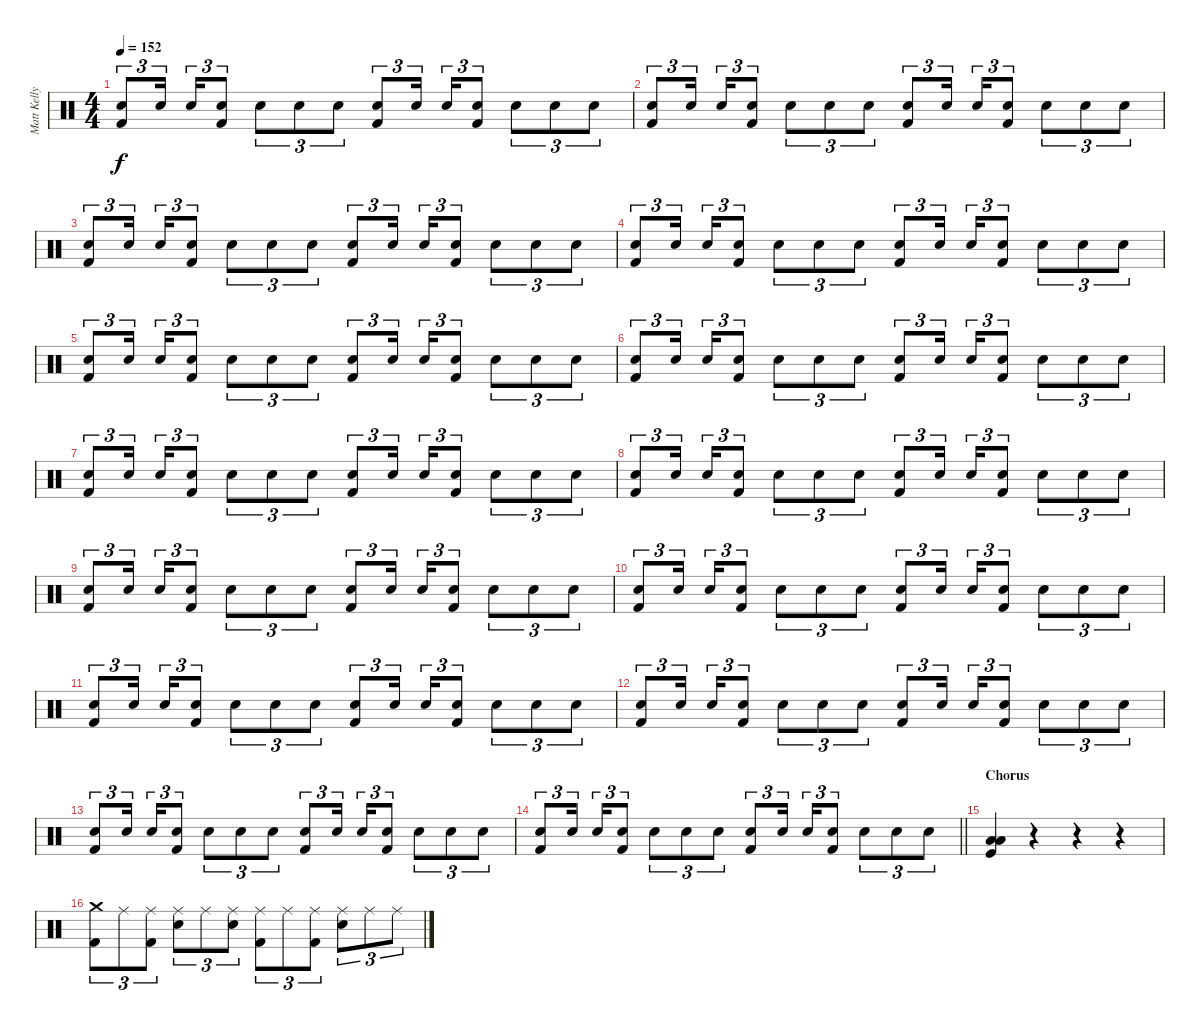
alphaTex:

\track ("Matt Kelly (Drums)" "Matt Kelly") {instrument percussion}
\staff {score}
\articulation defaults
\ts (4 4)
\tempo 152
\clef neutral
\ks c
("Electric Snare (hit)" "Kick (hit) 2").8{tu (3 2) dy f} "Electric Snare (hit)".16{tu (3 2) beam splitsecondary} "Electric Snare (hit)".16{tu (3 2)} ("Electric Snare (hit)" "Kick (hit) 2").8{tu (3 2)} "Electric Snare (hit)".8{tu (3 2)} "Electric Snare (hit)".8{tu (3 2)} "Electric Snare (hit)".8{tu (3 2)} ("Electric Snare (hit)" "Kick (hit) 2").8{tu (3 2)} "Electric Snare (hit)".16{tu (3 2) beam splitsecondary} "Electric Snare (hit)".16{tu (3 2)} ("Electric Snare (hit)" "Kick (hit) 2").8{tu (3 2)} "Electric Snare (hit)".8{tu (3 2)} "Electric Snare (hit)".8{tu (3 2)} "Electric Snare (hit)".8{tu (3 2)} |
("Electric Snare (hit)" "Kick (hit) 2").8{tu (3 2)} "Electric Snare (hit)".16{tu (3 2) beam splitsecondary} "Electric Snare (hit)".16{tu (3 2)} ("Electric Snare (hit)" "Kick (hit) 2").8{tu (3 2)} "Electric Snare (hit)".8{tu (3 2)} "Electric Snare (hit)".8{tu (3 2)} "Electric Snare (hit)".8{tu (3 2)} ("Electric Snare (hit)" "Kick (hit) 2").8{tu (3 2)} "Electric Snare (hit)".16{tu (3 2) beam splitsecondary} "Electric Snare (hit)".16{tu (3 2)} ("Electric Snare (hit)" "Kick (hit) 2").8{tu (3 2)} "Electric Snare (hit)".8{tu (3 2)} "Electric Snare (hit)".8{tu (3 2)} "Electric Snare (hit)".8{tu (3 2)} |
("Electric Snare (hit)" "Kick (hit) 2").8{tu (3 2)} "Electric Snare (hit)".16{tu (3 2) beam splitsecondary} "Electric Snare (hit)".16{tu (3 2)} ("Electric Snare (hit)" "Kick (hit) 2").8{tu (3 2)} "Electric Snare (hit)".8{tu (3 2)} "Electric Snare (hit)".8{tu (3 2)} "Electric Snare (hit)".8{tu (3 2)} ("Electric Snare (hit)" "Kick (hit) 2").8{tu (3 2)} "Electric Snare (hit)".16{tu (3 2) beam splitsecondary} "Electric Snare (hit)".16{tu (3 2)} ("Electric Snare (hit)" "Kick (hit) 2").8{tu (3 2)} "Electric Snare (hit)".8{tu (3 2)} "Electric Snare (hit)".8{tu (3 2)} "Electric Snare (hit)".8{tu (3 2)} |
("Electric Snare (hit)" "Kick (hit) 2").8{tu (3 2)} "Electric Snare (hit)".16{tu (3 2) beam splitsecondary} "Electric Snare (hit)".16{tu (3 2)} ("Electric Snare (hit)" "Kick (hit) 2").8{tu (3 2)} "Electric Snare (hit)".8{tu (3 2)} "Electric Snare (hit)".8{tu (3 2)} "Electric Snare (hit)".8{tu (3 2)} ("Electric Snare (hit)" "Kick (hit) 2").8{tu (3 2)} "Electric Snare (hit)".16{tu (3 2) beam splitsecondary} "Electric Snare (hit)".16{tu (3 2)} ("Electric Snare (hit)" "Kick (hit) 2").8{tu (3 2)} "Electric Snare (hit)".8{tu (3 2)} "Electric Snare (hit)".8{tu (3 2)} "Electric Snare (hit)".8{tu (3 2)} |
("Electric Snare (hit)" "Kick (hit) 2").8{tu (3 2)} "Electric Snare (hit)".16{tu (3 2) beam splitsecondary} "Electric Snare (hit)".16{tu (3 2)} ("Electric Snare (hit)" "Kick (hit) 2").8{tu (3 2)} "Electric Snare (hit)".8{tu (3 2)} "Electric Snare (hit)".8{tu (3 2)} "Electric Snare (hit)".8{tu (3 2)} ("Electric Snare (hit)" "Kick (hit) 2").8{tu (3 2)} "Electric Snare (hit)".16{tu (3 2) beam splitsecondary} "Electric Snare (hit)".16{tu (3 2)} ("Electric Snare (hit)" "Kick (hit) 2").8{tu (3 2)} "Electric Snare (hit)".8{tu (3 2)} "Electric Snare (hit)".8{tu (3 2)} "Electric Snare (hit)".8{tu (3 2)} |
("Electric Snare (hit)" "Kick (hit) 2").8{tu (3 2)} "Electric Snare (hit)".16{tu (3 2) beam splitsecondary} "Electric Snare (hit)".16{tu (3 2)} ("Electric Snare (hit)" "Kick (hit) 2").8{tu (3 2)} "Electric Snare (hit)".8{tu (3 2)} "Electric Snare (hit)".8{tu (3 2)} "Electric Snare (hit)".8{tu (3 2)} ("Electric Snare (hit)" "Kick (hit) 2").8{tu (3 2)} "Electric Snare (hit)".16{tu (3 2) beam splitsecondary} "Electric Snare (hit)".16{tu (3 2)} ("Electric Snare (hit)" "Kick (hit) 2").8{tu (3 2)} "Electric Snare (hit)".8{tu (3 2)} "Electric Snare (hit)".8{tu (3 2)} "Electric Snare (hit)".8{tu (3 2)} |
("Electric Snare (hit)" "Kick (hit) 2").8{tu (3 2)} "Electric Snare (hit)".16{tu (3 2) beam splitsecondary} "Electric Snare (hit)".16{tu (3 2)} ("Electric Snare (hit)" "Kick (hit) 2").8{tu (3 2)} "Electric Snare (hit)".8{tu (3 2)} "Electric Snare (hit)".8{tu (3 2)} "Electric Snare (hit)".8{tu (3 2)} ("Electric Snare (hit)" "Kick (hit) 2").8{tu (3 2)} "Electric Snare (hit)".16{tu (3 2) beam splitsecondary} "Electric Snare (hit)".16{tu (3 2)} ("Electric Snare (hit)" "Kick (hit) 2").8{tu (3 2)} "Electric Snare (hit)".8{tu (3 2)} "Electric Snare (hit)".8{tu (3 2)} "Electric Snare (hit)".8{tu (3 2)} |
("Electric Snare (hit)" "Kick (hit) 2").8{tu (3 2)} "Electric Snare (hit)".16{tu (3 2) beam splitsecondary} "Electric Snare (hit)".16{tu (3 2)} ("Electric Snare (hit)" "Kick (hit) 2").8{tu (3 2)} "Electric Snare (hit)".8{tu (3 2)} "Electric Snare (hit)".8{tu (3 2)} "Electric Snare (hit)".8{tu (3 2)} ("Electric Snare (hit)" "Kick (hit) 2").8{tu (3 2)} "Electric Snare (hit)".16{tu (3 2) beam splitsecondary} "Electric Snare (hit)".16{tu (3 2)} ("Electric Snare (hit)" "Kick (hit) 2").8{tu (3 2)} "Electric Snare (hit)".8{tu (3 2)} "Electric Snare (hit)".8{tu (3 2)} "Electric Snare (hit)".8{tu (3 2)} |
("Electric Snare (hit)" "Kick (hit) 2").8{tu (3 2)} "Electric Snare (hit)".16{tu (3 2) beam splitsecondary} "Electric Snare (hit)".16{tu (3 2)} ("Electric Snare (hit)" "Kick (hit) 2").8{tu (3 2)} "Electric Snare (hit)".8{tu (3 2)} "Electric Snare (hit)".8{tu (3 2)} "Electric Snare (hit)".8{tu (3 2)} ("Electric Snare (hit)" "Kick (hit) 2").8{tu (3 2)} "Electric Snare (hit)".16{tu (3 2) beam splitsecondary} "Electric Snare (hit)".16{tu (3 2)} ("Electric Snare (hit)" "Kick (hit) 2").8{tu (3 2)} "Electric Snare (hit)".8{tu (3 2)} "Electric Snare (hit)".8{tu (3 2)} "Electric Snare (hit)".8{tu (3 2)} |
("Electric Snare (hit)" "Kick (hit) 2").8{tu (3 2)} "Electric Snare (hit)".16{tu (3 2) beam splitsecondary} "Electric Snare (hit)".16{tu (3 2)} ("Electric Snare (hit)" "Kick (hit) 2").8{tu (3 2)} "Electric Snare (hit)".8{tu (3 2)} "Electric Snare (hit)".8{tu (3 2)} "Electric Snare (hit)".8{tu (3 2)} ("Electric Snare (hit)" "Kick (hit) 2").8{tu (3 2)} "Electric Snare (hit)".16{tu (3 2) beam splitsecondary} "Electric Snare (hit)".16{tu (3 2)} ("Electric Snare (hit)" "Kick (hit) 2").8{tu (3 2)} "Electric Snare (hit)".8{tu (3 2)} "Electric Snare (hit)".8{tu (3 2)} "Electric Snare (hit)".8{tu (3 2)} |
("Electric Snare (hit)" "Kick (hit) 2").8{tu (3 2)} "Electric Snare (hit)".16{tu (3 2) beam splitsecondary} "Electric Snare (hit)".16{tu (3 2)} ("Electric Snare (hit)" "Kick (hit) 2").8{tu (3 2)} "Electric Snare (hit)".8{tu (3 2)} "Electric Snare (hit)".8{tu (3 2)} "Electric Snare (hit)".8{tu (3 2)} ("Electric Snare (hit)" "Kick (hit) 2").8{tu (3 2)} "Electric Snare (hit)".16{tu (3 2) beam splitsecondary} "Electric Snare (hit)".16{tu (3 2)} ("Electric Snare (hit)" "Kick (hit) 2").8{tu (3 2)} "Electric Snare (hit)".8{tu (3 2)} "Electric Snare (hit)".8{tu (3 2)} "Electric Snare (hit)".8{tu (3 2)} |
("Electric Snare (hit)" "Kick (hit) 2").8{tu (3 2)} "Electric Snare (hit)".16{tu (3 2) beam splitsecondary} "Electric Snare (hit)".16{tu (3 2)} ("Electric Snare (hit)" "Kick (hit) 2").8{tu (3 2)} "Electric Snare (hit)".8{tu (3 2)} "Electric Snare (hit)".8{tu (3 2)} "Electric Snare (hit)".8{tu (3 2)} ("Electric Snare (hit)" "Kick (hit) 2").8{tu (3 2)} "Electric Snare (hit)".16{tu (3 2) beam splitsecondary} "Electric Snare (hit)".16{tu (3 2)} ("Electric Snare (hit)" "Kick (hit) 2").8{tu (3 2)} "Electric Snare (hit)".8{tu (3 2)} "Electric Snare (hit)".8{tu (3 2)} "Electric Snare (hit)".8{tu (3 2)} |
("Electric Snare (hit)" "Kick (hit) 2").8{tu (3 2)} "Electric Snare (hit)".16{tu (3 2) beam splitsecondary} "Electric Snare (hit)".16{tu (3 2)} ("Electric Snare (hit)" "Kick (hit) 2").8{tu (3 2)} "Electric Snare (hit)".8{tu (3 2)} "Electric Snare (hit)".8{tu (3 2)} "Electric Snare (hit)".8{tu (3 2)} ("Electric Snare (hit)" "Kick (hit) 2").8{tu (3 2)} "Electric Snare (hit)".16{tu (3 2) beam splitsecondary} "Electric Snare (hit)".16{tu (3 2)} ("Electric Snare (hit)" "Kick (hit) 2").8{tu (3 2)} "Electric Snare (hit)".8{tu (3 2)} "Electric Snare (hit)".8{tu (3 2)} "Electric Snare (hit)".8{tu (3 2)} |
\barLineRight lightlight
("Electric Snare (hit)" "Kick (hit) 2").8{tu (3 2)} "Electric Snare (hit)".16{tu (3 2) beam splitsecondary} "Electric Snare (hit)".16{tu (3 2)} ("Electric Snare (hit)" "Kick (hit) 2").8{tu (3 2)} "Electric Snare (hit)".8{tu (3 2)} "Electric Snare (hit)".8{tu (3 2)} "Electric Snare (hit)".8{tu (3 2)} ("Electric Snare (hit)" "Kick (hit) 2").8{tu (3 2)} "Electric Snare (hit)".16{tu (3 2) beam splitsecondary} "Electric Snare (hit)".16{tu (3 2)} ("Electric Snare (hit)" "Kick (hit) 2").8{tu (3 2)} "Electric Snare (hit)".8{tu (3 2)} "Electric Snare (hit)".8{tu (3 2)} "Electric Snare (hit)".8{tu (3 2)} |
\section ("" "Chorus")
("Low Tom (hit)" "Low Floor Tom (hit)" "Kick (hit)").4 r.4 r.4 r.4 |
("Crash medium (hit)" "Kick (hit) 2").8{tu (3 2)} "Ride (middle)".8{tu (3 2)} ("Ride (middle)" "Kick (hit) 2").8{tu (3 2)} ("Ride (middle)" "Electric Snare (hit)").8{tu (3 2)} "Ride (middle)".8{tu (3 2)} ("Ride (middle)" "Electric Snare (hit)").8{tu (3 2)} ("Ride (middle)" "Kick (hit) 2").8{tu (3 2)} "Ride (middle)".8{tu (3 2)} ("Ride (middle)" "Kick (hit) 2").8{tu (3 2)} ("Ride (middle)" "Electric Snare (hit)").8{tu (3 2)} "Ride (middle)".8{tu (3 2)} "Ride (middle)".8{tu (3 2)}
